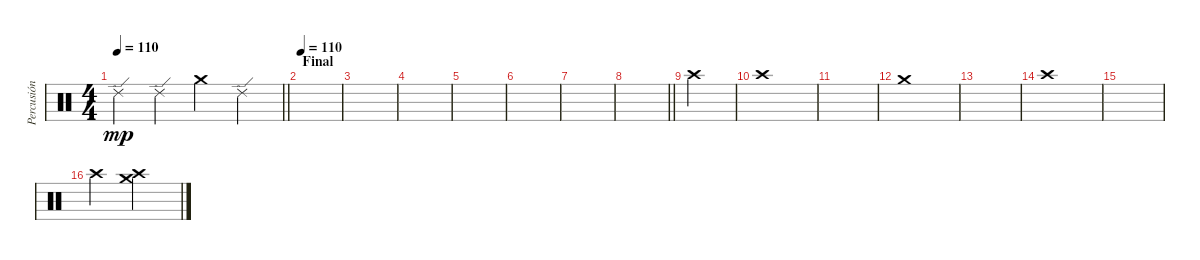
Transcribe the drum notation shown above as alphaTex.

\track ("Percusión" "Percusión") {instrument percussion}
\staff {score}
\articulation defaults
\ts (4 4)
\tempo 110
\clef neutral
\barLineRight lightlight
\ks c "Ride (edge) 2".4{dy mp} "Ride (edge) 2".4 "Crash medium (hit)".4 "Ride (edge) 2".4
|
\section ("" "Final")
\tempo 110
|
|
|
|
|
|
\barLineRight lightlight
|
"Crash high (hit)".4 |
"Crash high (hit)".1 |
|
"Crash medium (hit)".1 |
|
"Crash high (hit)".1 |
|
"Crash high (hit)".2 ("Crash medium (hit)" "Crash high (hit)").2
